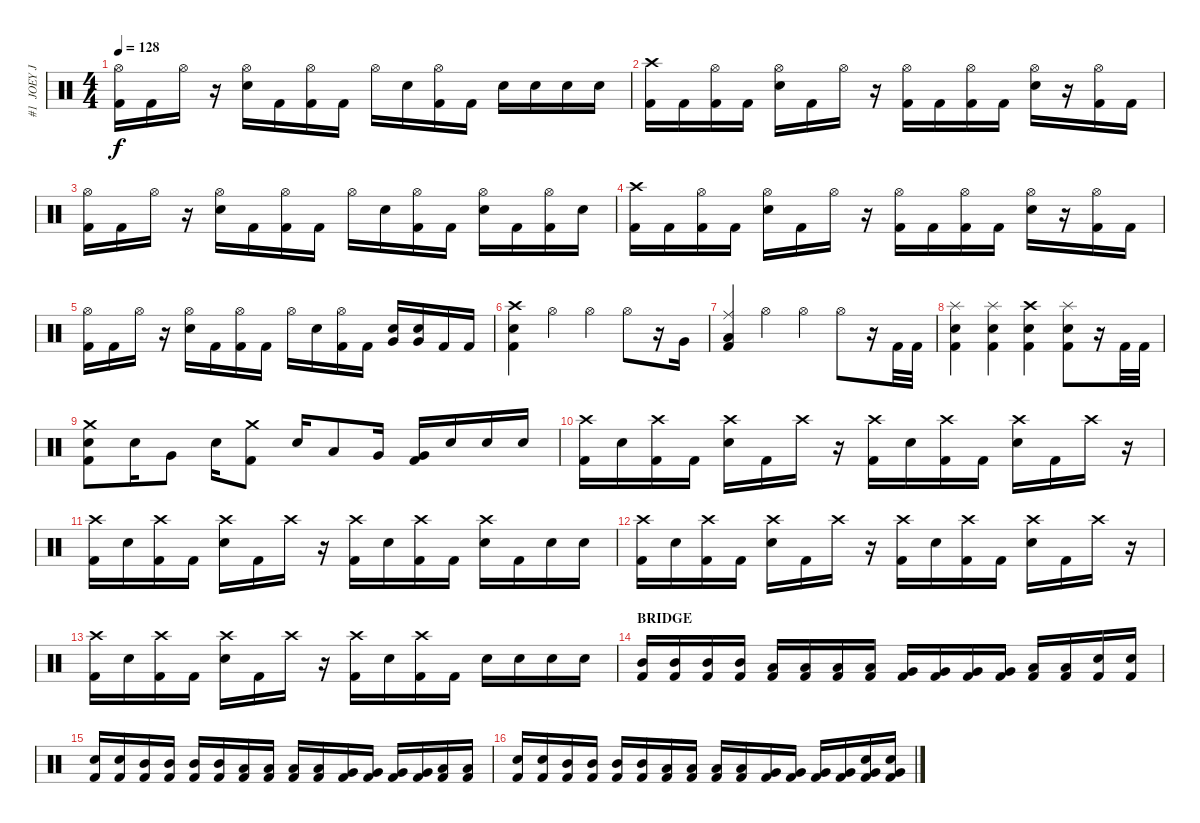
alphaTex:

\track ("#1  JOEY JORDISON" "#1  JOEY J") {instrument percussion}
\staff {score}
\articulation defaults
\ts (4 4)
\tempo 128
\clef neutral
\ks c
("Hi-Hat (open)" "Kick (hit) 2").16{dy f} "Kick (hit) 2".16 "Hi-Hat (open)".16 r.16 ("Hi-Hat (open)" "Electric Snare (hit)").16 "Kick (hit) 2".16 ("Hi-Hat (open)" "Kick (hit) 2").16 "Kick (hit) 2".16 "Hi-Hat (open)".16 "Electric Snare (hit)".16 ("Hi-Hat (open)" "Kick (hit) 2").16 "Kick (hit) 2".16 "Electric Snare (hit)".16 "Electric Snare (hit)".16 "Electric Snare (hit)".16 "Electric Snare (hit)".16 |
("Crash high (hit)" "Kick (hit) 2").16 "Kick (hit) 2".16 ("Hi-Hat (open)" "Kick (hit) 2").16 "Kick (hit) 2".16 ("Hi-Hat (open)" "Electric Snare (hit)").16 "Kick (hit) 2".16 "Hi-Hat (open)".16 r.16 ("Hi-Hat (open)" "Kick (hit) 2").16 "Kick (hit) 2".16 ("Hi-Hat (open)" "Kick (hit) 2").16 "Kick (hit) 2".16 ("Hi-Hat (open)" "Electric Snare (hit)").16 r.16 ("Hi-Hat (open)" "Kick (hit) 2").16 "Kick (hit) 2".16 |
("Hi-Hat (open)" "Kick (hit) 2").16 "Kick (hit) 2".16 "Hi-Hat (open)".16 r.16 ("Hi-Hat (open)" "Electric Snare (hit)").16 "Kick (hit) 2".16 ("Hi-Hat (open)" "Kick (hit) 2").16 "Kick (hit) 2".16 "Hi-Hat (open)".16 "Electric Snare (hit)".16 ("Hi-Hat (open)" "Kick (hit) 2").16 "Kick (hit) 2".16 ("Hi-Hat (open)" "Electric Snare (hit)").16 "Kick (hit) 2".16 ("Hi-Hat (open)" "Kick (hit) 2").16 "Electric Snare (hit)".16 |
("Crash high (hit)" "Kick (hit) 2").16 "Kick (hit) 2".16 ("Hi-Hat (open)" "Kick (hit) 2").16 "Kick (hit) 2".16 ("Hi-Hat (open)" "Electric Snare (hit)").16 "Kick (hit) 2".16 "Hi-Hat (open)".16 r.16 ("Hi-Hat (open)" "Kick (hit) 2").16 "Kick (hit) 2".16 ("Hi-Hat (open)" "Kick (hit) 2").16 "Kick (hit) 2".16 ("Hi-Hat (open)" "Electric Snare (hit)").16 r.16 ("Hi-Hat (open)" "Kick (hit) 2").16 "Kick (hit) 2".16 |
("Hi-Hat (open)" "Kick (hit) 2").16 "Kick (hit) 2".16 "Hi-Hat (open)".16 r.16 ("Hi-Hat (open)" "Electric Snare (hit)").16 "Kick (hit) 2".16 ("Hi-Hat (open)" "Kick (hit) 2").16 "Kick (hit) 2".16 "Hi-Hat (open)".16 "Electric Snare (hit)".16 ("Hi-Hat (open)" "Kick (hit) 2").16 "Kick (hit) 2".16 ("Very Low Tom (hit)" "Electric Snare (hit)").16 ("Very Low Tom (hit)" "Electric Snare (hit)").16 "Kick (hit) 2".16 "Kick (hit) 2".16 |
\section ("" "")
("Crash high (hit)" "Electric Snare (hit)" "Kick (hit) 2").4 "Hi-Hat (open)".4 "Hi-Hat (open)".4 "Hi-Hat (open)".8 r.16 "Very Low Tom (hit)".16 |
("Ride (middle)" "Low Floor Tom (hit)" "Kick (hit) 2").4 "Hi-Hat (open)".4 "Hi-Hat (open)".4 "Hi-Hat (open)".8 r.16 "Kick (hit) 2".32 "Kick (hit) 2".32 |
("Splash (hit)" "Electric Snare (hit)" "Kick (hit) 2").4 ("Splash (hit)" "Electric Snare (hit)" "Kick (hit) 2").4 ("Crash high (hit)" "Electric Snare (hit)" "Kick (hit) 2").4 ("Splash (hit)" "Electric Snare (hit)" "Kick (hit) 2").8 r.16 "Kick (hit) 2".32 "Kick (hit) 2".32 |
("Crash medium (hit)" "Electric Snare (hit)" "Kick (hit) 2").8 "Electric Snare (hit)".16 "Very Low Tom (hit)".8 "Electric Snare (hit)".16 ("Crash medium (hit)" "Kick (hit) 2").8 "Electric Snare (hit)".16 "Low Tom (hit)".8 "Very Low Tom (hit)".16 ("Very Low Tom (hit)" "Kick (hit) 2").16 "Electric Snare (hit)".16 "Electric Snare (hit)".16 "Electric Snare (hit)".16 |
("Crash high (hit)" "Kick (hit) 2").16 "Electric Snare (hit)".16 ("Crash high (hit)" "Kick (hit) 2").16 "Kick (hit) 2".16 ("Crash high (hit)" "Electric Snare (hit)").16 "Kick (hit) 2".16 "Crash high (hit)".16 r.16 ("Crash high (hit)" "Kick (hit) 2").16 "Electric Snare (hit)".16 ("Crash high (hit)" "Kick (hit) 2").16 "Kick (hit) 2".16 ("Crash high (hit)" "Electric Snare (hit)").16 "Kick (hit) 2".16 "Crash high (hit)".16 r.16 |
("Crash high (hit)" "Kick (hit) 2").16 "Electric Snare (hit)".16 ("Crash high (hit)" "Kick (hit) 2").16 "Kick (hit) 2".16 ("Crash high (hit)" "Electric Snare (hit)").16 "Kick (hit) 2".16 "Crash high (hit)".16 r.16 ("Crash high (hit)" "Kick (hit) 2").16 "Electric Snare (hit)".16 ("Crash high (hit)" "Kick (hit) 2").16 "Kick (hit) 2".16 ("Crash high (hit)" "Electric Snare (hit)").16 "Kick (hit) 2".16 "Electric Snare (hit)".16 "Electric Snare (hit)".16 |
("Crash high (hit)" "Kick (hit) 2").16 "Electric Snare (hit)".16 ("Crash high (hit)" "Kick (hit) 2").16 "Kick (hit) 2".16 ("Crash high (hit)" "Electric Snare (hit)").16 "Kick (hit) 2".16 "Crash high (hit)".16 r.16 ("Crash high (hit)" "Kick (hit) 2").16 "Electric Snare (hit)".16 ("Crash high (hit)" "Kick (hit) 2").16 "Kick (hit) 2".16 ("Crash high (hit)" "Electric Snare (hit)").16 "Kick (hit) 2".16 "Crash high (hit)".16 r.16 |
("Crash high (hit)" "Kick (hit) 2").16 "Electric Snare (hit)".16 ("Crash high (hit)" "Kick (hit) 2").16 "Kick (hit) 2".16 ("Crash high (hit)" "Electric Snare (hit)").16 "Kick (hit) 2".16 "Crash high (hit)".16 r.16 ("Crash high (hit)" "Kick (hit) 2").16 "Electric Snare (hit)".16 ("Crash high (hit)" "Kick (hit) 2").16 "Kick (hit) 2".16 "Electric Snare (hit)".16 "Electric Snare (hit)".16 "Electric Snare (hit)".16 "Electric Snare (hit)".16 |
\section ("" "BRIDGE")
("Mid Tom (hit)" "Kick (hit) 2").16 ("Mid Tom (hit)" "Kick (hit) 2").16 ("Mid Tom (hit)" "Kick (hit) 2").16 ("Mid Tom (hit)" "Kick (hit) 2").16 ("Low Tom (hit)" "Kick (hit) 2").16 ("Low Tom (hit)" "Kick (hit) 2").16 ("Low Tom (hit)" "Kick (hit) 2").16 ("Low Tom (hit)" "Kick (hit) 2").16 ("Very Low Tom (hit)" "Kick (hit) 2").16 ("Very Low Tom (hit)" "Kick (hit) 2").16 ("Very Low Tom (hit)" "Kick (hit) 2").16 ("Very Low Tom (hit)" "Kick (hit) 2").16 ("Low Floor Tom (hit)" "Kick (hit) 2").16 ("Low Floor Tom (hit)" "Kick (hit) 2").16 ("Electric Snare (hit)" "Kick (hit) 2").16 ("Electric Snare (hit)" "Kick (hit) 2").16 |
("Electric Snare (hit)" "Kick (hit) 2").16 ("Electric Snare (hit)" "Kick (hit) 2").16 ("Mid Tom (hit)" "Kick (hit) 2").16 ("Mid Tom (hit)" "Kick (hit) 2").16 ("Mid Tom (hit)" "Kick (hit) 2").16 ("Mid Tom (hit)" "Kick (hit) 2").16 ("Low Tom (hit)" "Kick (hit) 2").16 ("Low Tom (hit)" "Kick (hit) 2").16 ("Low Tom (hit)" "Kick (hit) 2").16 ("Low Tom (hit)" "Kick (hit) 2").16 ("Very Low Tom (hit)" "Kick (hit) 2").16 ("Very Low Tom (hit)" "Kick (hit) 2").16 ("Very Low Tom (hit)" "Kick (hit) 2").16 ("Very Low Tom (hit)" "Kick (hit) 2").16 ("Low Floor Tom (hit)" "Kick (hit) 2").16 ("Low Floor Tom (hit)" "Kick (hit) 2").16 |
("Electric Snare (hit)" "Kick (hit) 2").16 ("Electric Snare (hit)" "Kick (hit) 2").16 ("Mid Tom (hit)" "Kick (hit) 2").16 ("Mid Tom (hit)" "Kick (hit) 2").16 ("Mid Tom (hit)" "Kick (hit) 2").16 ("Mid Tom (hit)" "Kick (hit) 2").16 ("Low Tom (hit)" "Kick (hit) 2").16 ("Low Tom (hit)" "Kick (hit) 2").16 ("Low Tom (hit)" "Kick (hit) 2").16 ("Low Tom (hit)" "Kick (hit) 2").16 ("Very Low Tom (hit)" "Kick (hit) 2").16 ("Very Low Tom (hit)" "Kick (hit) 2").16 ("Very Low Tom (hit)" "Kick (hit) 2").16 ("Very Low Tom (hit)" "Kick (hit) 2").16 ("Electric Snare (hit)" "Very Low Tom (hit)" "Kick (hit) 2").16 ("Electric Snare (hit)" "Very Low Tom (hit)" "Kick (hit) 2").16
